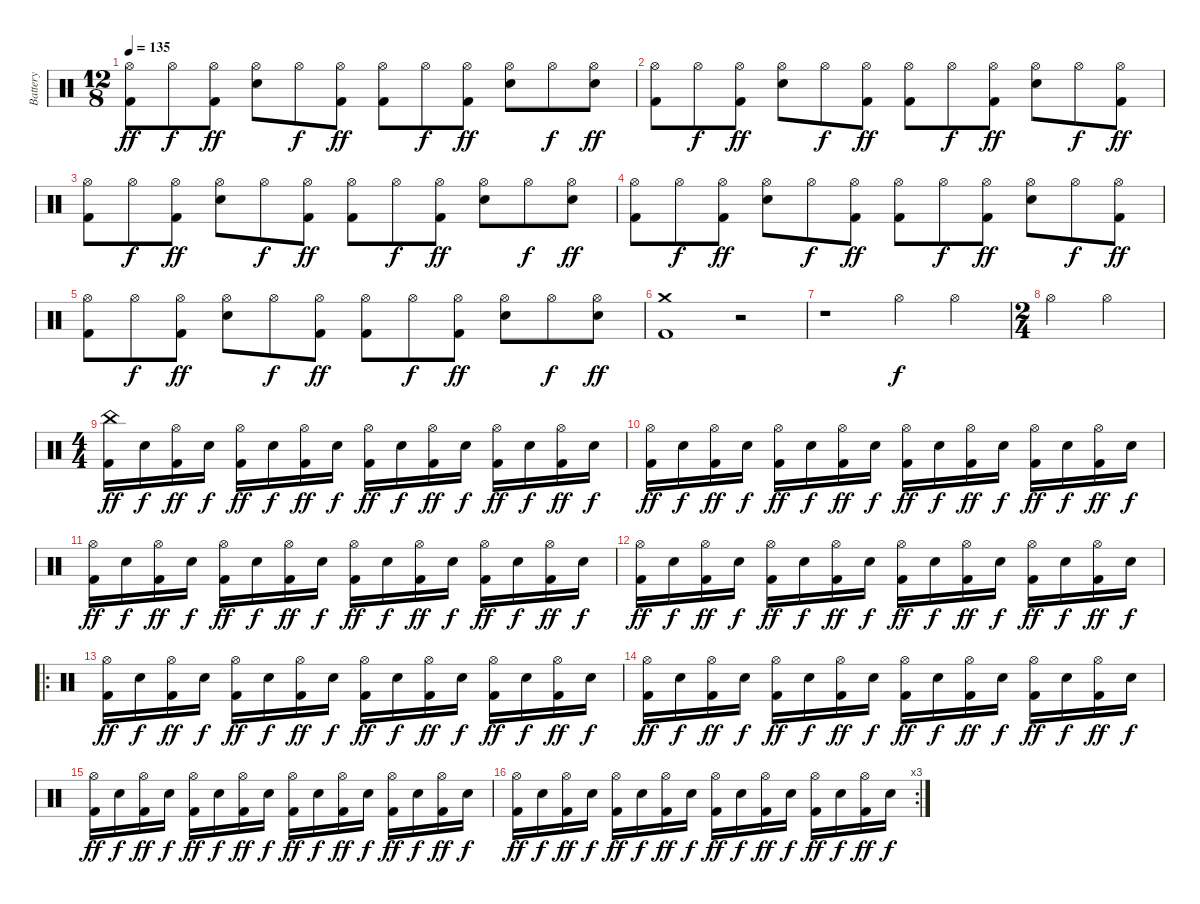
\track ("Battery" "Battery") {instrument percussion}
\staff {score}
\articulation defaults
\ts (12 8)
\tempo 135
\clef neutral
\ks c
("Hi-Hat (open)" "Kick (hit) 2").8{dy ff} "Hi-Hat (open)".8{dy f} ("Hi-Hat (open)" "Kick (hit) 2").8{dy ff} ("Hi-Hat (open)" "Snare (hit) 2").8 "Hi-Hat (open)".8{dy f} ("Hi-Hat (open)" "Kick (hit) 2").8{dy ff} ("Hi-Hat (open)" "Kick (hit) 2").8 "Hi-Hat (open)".8{dy f} ("Hi-Hat (open)" "Kick (hit) 2").8{dy ff} ("Hi-Hat (open)" "Snare (hit) 2").8 "Hi-Hat (open)".8{dy f} ("Hi-Hat (open)" "Snare (hit) 2").8{dy ff} |
("Hi-Hat (open)" "Kick (hit) 2").8 "Hi-Hat (open)".8{dy f} ("Hi-Hat (open)" "Kick (hit) 2").8{dy ff} ("Hi-Hat (open)" "Snare (hit) 2").8 "Hi-Hat (open)".8{dy f} ("Hi-Hat (open)" "Kick (hit) 2").8{dy ff} ("Hi-Hat (open)" "Kick (hit) 2").8 "Hi-Hat (open)".8{dy f} ("Hi-Hat (open)" "Kick (hit) 2").8{dy ff} ("Hi-Hat (open)" "Snare (hit) 2").8 "Hi-Hat (open)".8{dy f} ("Hi-Hat (open)" "Kick (hit) 2").8{dy ff} |
("Hi-Hat (open)" "Kick (hit) 2").8 "Hi-Hat (open)".8{dy f} ("Hi-Hat (open)" "Kick (hit) 2").8{dy ff} ("Hi-Hat (open)" "Snare (hit) 2").8 "Hi-Hat (open)".8{dy f} ("Hi-Hat (open)" "Kick (hit) 2").8{dy ff} ("Hi-Hat (open)" "Kick (hit) 2").8 "Hi-Hat (open)".8{dy f} ("Hi-Hat (open)" "Kick (hit) 2").8{dy ff} ("Hi-Hat (open)" "Snare (hit) 2").8 "Hi-Hat (open)".8{dy f} ("Hi-Hat (open)" "Snare (hit) 2").8{dy ff} |
("Hi-Hat (open)" "Kick (hit) 2").8 "Hi-Hat (open)".8{dy f} ("Hi-Hat (open)" "Kick (hit) 2").8{dy ff} ("Hi-Hat (open)" "Snare (hit) 2").8 "Hi-Hat (open)".8{dy f} ("Hi-Hat (open)" "Kick (hit) 2").8{dy ff} ("Hi-Hat (open)" "Kick (hit) 2").8 "Hi-Hat (open)".8{dy f} ("Hi-Hat (open)" "Kick (hit) 2").8{dy ff} ("Hi-Hat (open)" "Snare (hit) 2").8 "Hi-Hat (open)".8{dy f} ("Hi-Hat (open)" "Kick (hit) 2").8{dy ff} |
("Hi-Hat (open)" "Kick (hit) 2").8 "Hi-Hat (open)".8{dy f} ("Hi-Hat (open)" "Kick (hit) 2").8{dy ff} ("Hi-Hat (open)" "Snare (hit) 2").8 "Hi-Hat (open)".8{dy f} ("Hi-Hat (open)" "Kick (hit) 2").8{dy ff} ("Hi-Hat (open)" "Kick (hit) 2").8 "Hi-Hat (open)".8{dy f} ("Hi-Hat (open)" "Kick (hit) 2").8{dy ff} ("Hi-Hat (open)" "Snare (hit) 2").8 "Hi-Hat (open)".8{dy f} ("Hi-Hat (open)" "Snare (hit) 2").8{dy ff} |
("Crash medium (hit)" "Kick (hit) 2").1 r.2 |
r.1 "Hi-Hat (open)".4{dy f} "Hi-Hat (open)".4 |
\ts (2 4)
"Hi-Hat (open)".4 "Hi-Hat (open)".4 |
\ts (4 4)
("China (hit)" "Kick (hit) 2").16{dy ff} "Snare (hit) 2".16{dy f} ("Hi-Hat (open)" "Kick (hit) 2").16{dy ff} "Snare (hit) 2".16{dy f} ("Hi-Hat (open)" "Kick (hit) 2").16{dy ff} "Snare (hit) 2".16{dy f} ("Hi-Hat (open)" "Kick (hit) 2").16{dy ff} "Snare (hit) 2".16{dy f} ("Hi-Hat (open)" "Kick (hit) 2").16{dy ff} "Snare (hit) 2".16{dy f} ("Hi-Hat (open)" "Kick (hit) 2").16{dy ff} "Snare (hit) 2".16{dy f} ("Hi-Hat (open)" "Kick (hit) 2").16{dy ff} "Snare (hit) 2".16{dy f} ("Hi-Hat (open)" "Kick (hit) 2").16{dy ff} "Snare (hit) 2".16{dy f} |
("Hi-Hat (open)" "Kick (hit) 2").16{dy ff} "Snare (hit) 2".16{dy f} ("Hi-Hat (open)" "Kick (hit) 2").16{dy ff} "Snare (hit) 2".16{dy f} ("Hi-Hat (open)" "Kick (hit) 2").16{dy ff} "Snare (hit) 2".16{dy f} ("Hi-Hat (open)" "Kick (hit) 2").16{dy ff} "Snare (hit) 2".16{dy f} ("Hi-Hat (open)" "Kick (hit) 2").16{dy ff} "Snare (hit) 2".16{dy f} ("Hi-Hat (open)" "Kick (hit) 2").16{dy ff} "Snare (hit) 2".16{dy f} ("Hi-Hat (open)" "Kick (hit) 2").16{dy ff} "Snare (hit) 2".16{dy f} ("Hi-Hat (open)" "Kick (hit) 2").16{dy ff} "Snare (hit) 2".16{dy f} |
("Hi-Hat (open)" "Kick (hit) 2").16{dy ff} "Snare (hit) 2".16{dy f} ("Hi-Hat (open)" "Kick (hit) 2").16{dy ff} "Snare (hit) 2".16{dy f} ("Hi-Hat (open)" "Kick (hit) 2").16{dy ff} "Snare (hit) 2".16{dy f} ("Hi-Hat (open)" "Kick (hit) 2").16{dy ff} "Snare (hit) 2".16{dy f} ("Hi-Hat (open)" "Kick (hit) 2").16{dy ff} "Snare (hit) 2".16{dy f} ("Hi-Hat (open)" "Kick (hit) 2").16{dy ff} "Snare (hit) 2".16{dy f} ("Hi-Hat (open)" "Kick (hit) 2").16{dy ff} "Snare (hit) 2".16{dy f} ("Hi-Hat (open)" "Kick (hit) 2").16{dy ff} "Snare (hit) 2".16{dy f} |
("Hi-Hat (open)" "Kick (hit) 2").16{dy ff} "Snare (hit) 2".16{dy f} ("Hi-Hat (open)" "Kick (hit) 2").16{dy ff} "Snare (hit) 2".16{dy f} ("Hi-Hat (open)" "Kick (hit) 2").16{dy ff} "Snare (hit) 2".16{dy f} ("Hi-Hat (open)" "Kick (hit) 2").16{dy ff} "Snare (hit) 2".16{dy f} ("Hi-Hat (open)" "Kick (hit) 2").16{dy ff} "Snare (hit) 2".16{dy f} ("Hi-Hat (open)" "Kick (hit) 2").16{dy ff} "Snare (hit) 2".16{dy f} ("Hi-Hat (open)" "Kick (hit) 2").16{dy ff} "Snare (hit) 2".16{dy f} ("Hi-Hat (open)" "Kick (hit) 2").16{dy ff} "Snare (hit) 2".16{dy f} |
\ro
("Hi-Hat (open)" "Kick (hit) 2").16{dy ff} "Snare (hit) 2".16{dy f} ("Hi-Hat (open)" "Kick (hit) 2").16{dy ff} "Snare (hit) 2".16{dy f} ("Hi-Hat (open)" "Kick (hit) 2").16{dy ff} "Snare (hit) 2".16{dy f} ("Hi-Hat (open)" "Kick (hit) 2").16{dy ff} "Snare (hit) 2".16{dy f} ("Hi-Hat (open)" "Kick (hit) 2").16{dy ff} "Snare (hit) 2".16{dy f} ("Hi-Hat (open)" "Kick (hit) 2").16{dy ff} "Snare (hit) 2".16{dy f} ("Hi-Hat (open)" "Kick (hit) 2").16{dy ff} "Snare (hit) 2".16{dy f} ("Hi-Hat (open)" "Kick (hit) 2").16{dy ff} "Snare (hit) 2".16{dy f} |
("Hi-Hat (open)" "Kick (hit) 2").16{dy ff} "Snare (hit) 2".16{dy f} ("Hi-Hat (open)" "Kick (hit) 2").16{dy ff} "Snare (hit) 2".16{dy f} ("Hi-Hat (open)" "Kick (hit) 2").16{dy ff} "Snare (hit) 2".16{dy f} ("Hi-Hat (open)" "Kick (hit) 2").16{dy ff} "Snare (hit) 2".16{dy f} ("Hi-Hat (open)" "Kick (hit) 2").16{dy ff} "Snare (hit) 2".16{dy f} ("Hi-Hat (open)" "Kick (hit) 2").16{dy ff} "Snare (hit) 2".16{dy f} ("Hi-Hat (open)" "Kick (hit) 2").16{dy ff} "Snare (hit) 2".16{dy f} ("Hi-Hat (open)" "Kick (hit) 2").16{dy ff} "Snare (hit) 2".16{dy f} |
("Hi-Hat (open)" "Kick (hit) 2").16{dy ff} "Snare (hit) 2".16{dy f} ("Hi-Hat (open)" "Kick (hit) 2").16{dy ff} "Snare (hit) 2".16{dy f} ("Hi-Hat (open)" "Kick (hit) 2").16{dy ff} "Snare (hit) 2".16{dy f} ("Hi-Hat (open)" "Kick (hit) 2").16{dy ff} "Snare (hit) 2".16{dy f} ("Hi-Hat (open)" "Kick (hit) 2").16{dy ff} "Snare (hit) 2".16{dy f} ("Hi-Hat (open)" "Kick (hit) 2").16{dy ff} "Snare (hit) 2".16{dy f} ("Hi-Hat (open)" "Kick (hit) 2").16{dy ff} "Snare (hit) 2".16{dy f} ("Hi-Hat (open)" "Kick (hit) 2").16{dy ff} "Snare (hit) 2".16{dy f} |
\rc 3
("Hi-Hat (open)" "Kick (hit) 2").16{dy ff} "Snare (hit) 2".16{dy f} ("Hi-Hat (open)" "Kick (hit) 2").16{dy ff} "Snare (hit) 2".16{dy f} ("Hi-Hat (open)" "Kick (hit) 2").16{dy ff} "Snare (hit) 2".16{dy f} ("Hi-Hat (open)" "Kick (hit) 2").16{dy ff} "Snare (hit) 2".16{dy f} ("Hi-Hat (open)" "Kick (hit) 2").16{dy ff} "Snare (hit) 2".16{dy f} ("Hi-Hat (open)" "Kick (hit) 2").16{dy ff} "Snare (hit) 2".16{dy f} ("Hi-Hat (open)" "Kick (hit) 2").16{dy ff} "Snare (hit) 2".16{dy f} ("Hi-Hat (open)" "Kick (hit) 2").16{dy ff} "Snare (hit) 2".16{dy f}
